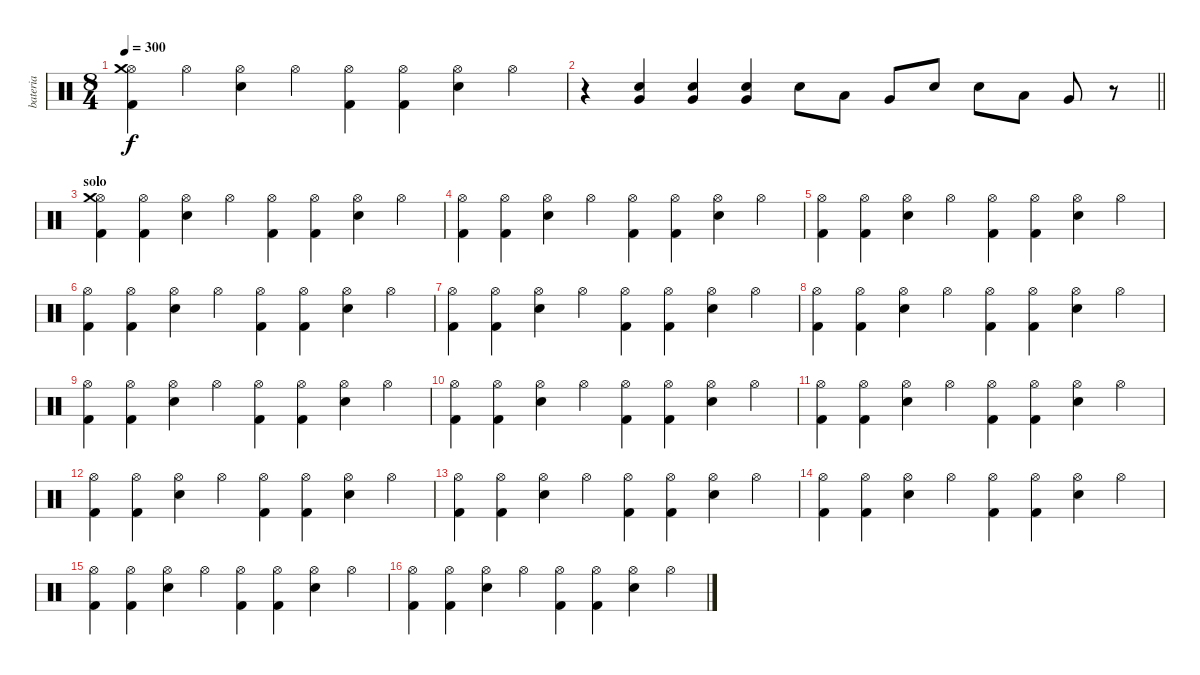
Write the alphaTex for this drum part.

\track ("bateria" "bateria") {instrument percussion}
\staff {score}
\articulation defaults
\ts (8 4)
\tempo 300
\clef neutral
\ks c
("Hi-Hat (open)" "Kick (hit) 2" "Crash medium (hit)").4{dy f} "Hi-Hat (open)".4 ("Hi-Hat (open)" "Electric Snare (hit)").4 "Hi-Hat (open)".4 ("Hi-Hat (open)" "Kick (hit) 2").4 ("Hi-Hat (open)" "Kick (hit) 2").4 ("Hi-Hat (open)" "Electric Snare (hit)").4 "Hi-Hat (open)".4 |
\barLineRight lightlight
r.4 ("Electric Snare (hit)" "Very Low Tom (hit)").4 ("Electric Snare (hit)" "Very Low Tom (hit)").4 ("Electric Snare (hit)" "Very Low Tom (hit)").4 "Electric Snare (hit)".8 "Low Tom (hit)".8 "Very Low Tom (hit)".8 "Electric Snare (hit)".8 "Electric Snare (hit)".8 "Low Tom (hit)".8 "Very Low Tom (hit)".8 r.8 |
\section ("" "solo")
("Hi-Hat (open)" "Kick (hit) 2" "Crash medium (hit)").4 ("Hi-Hat (open)" "Kick (hit) 2").4 ("Hi-Hat (open)" "Electric Snare (hit)").4 "Hi-Hat (open)".4 ("Hi-Hat (open)" "Kick (hit) 2").4 ("Hi-Hat (open)" "Kick (hit) 2").4 ("Hi-Hat (open)" "Electric Snare (hit)").4 "Hi-Hat (open)".4 |
("Hi-Hat (open)" "Kick (hit) 2").4 ("Hi-Hat (open)" "Kick (hit) 2").4 ("Hi-Hat (open)" "Electric Snare (hit)").4 "Hi-Hat (open)".4 ("Hi-Hat (open)" "Kick (hit) 2").4 ("Hi-Hat (open)" "Kick (hit) 2").4 ("Hi-Hat (open)" "Electric Snare (hit)").4 "Hi-Hat (open)".4 |
("Hi-Hat (open)" "Kick (hit) 2").4 ("Hi-Hat (open)" "Kick (hit) 2").4 ("Hi-Hat (open)" "Electric Snare (hit)").4 "Hi-Hat (open)".4 ("Hi-Hat (open)" "Kick (hit) 2").4 ("Hi-Hat (open)" "Kick (hit) 2").4 ("Hi-Hat (open)" "Electric Snare (hit)").4 "Hi-Hat (open)".4 |
("Hi-Hat (open)" "Kick (hit) 2").4 ("Hi-Hat (open)" "Kick (hit) 2").4 ("Hi-Hat (open)" "Electric Snare (hit)").4 "Hi-Hat (open)".4 ("Hi-Hat (open)" "Kick (hit) 2").4 ("Hi-Hat (open)" "Kick (hit) 2").4 ("Hi-Hat (open)" "Electric Snare (hit)").4 "Hi-Hat (open)".4 |
("Hi-Hat (open)" "Kick (hit) 2").4 ("Hi-Hat (open)" "Kick (hit) 2").4 ("Hi-Hat (open)" "Electric Snare (hit)").4 "Hi-Hat (open)".4 ("Hi-Hat (open)" "Kick (hit) 2").4 ("Hi-Hat (open)" "Kick (hit) 2").4 ("Hi-Hat (open)" "Electric Snare (hit)").4 "Hi-Hat (open)".4 |
("Hi-Hat (open)" "Kick (hit) 2").4 ("Hi-Hat (open)" "Kick (hit) 2").4 ("Hi-Hat (open)" "Electric Snare (hit)").4 "Hi-Hat (open)".4 ("Hi-Hat (open)" "Kick (hit) 2").4 ("Hi-Hat (open)" "Kick (hit) 2").4 ("Hi-Hat (open)" "Electric Snare (hit)").4 "Hi-Hat (open)".4 |
("Hi-Hat (open)" "Kick (hit) 2").4 ("Hi-Hat (open)" "Kick (hit) 2").4 ("Hi-Hat (open)" "Electric Snare (hit)").4 "Hi-Hat (open)".4 ("Hi-Hat (open)" "Kick (hit) 2").4 ("Hi-Hat (open)" "Kick (hit) 2").4 ("Hi-Hat (open)" "Electric Snare (hit)").4 "Hi-Hat (open)".4 |
("Hi-Hat (open)" "Kick (hit) 2").4 ("Hi-Hat (open)" "Kick (hit) 2").4 ("Hi-Hat (open)" "Electric Snare (hit)").4 "Hi-Hat (open)".4 ("Hi-Hat (open)" "Kick (hit) 2").4 ("Hi-Hat (open)" "Kick (hit) 2").4 ("Hi-Hat (open)" "Electric Snare (hit)").4 "Hi-Hat (open)".4 |
("Hi-Hat (open)" "Kick (hit) 2").4 ("Hi-Hat (open)" "Kick (hit) 2").4 ("Hi-Hat (open)" "Electric Snare (hit)").4 "Hi-Hat (open)".4 ("Hi-Hat (open)" "Kick (hit) 2").4 ("Hi-Hat (open)" "Kick (hit) 2").4 ("Hi-Hat (open)" "Electric Snare (hit)").4 "Hi-Hat (open)".4 |
("Hi-Hat (open)" "Kick (hit) 2").4 ("Hi-Hat (open)" "Kick (hit) 2").4 ("Hi-Hat (open)" "Electric Snare (hit)").4 "Hi-Hat (open)".4 ("Hi-Hat (open)" "Kick (hit) 2").4 ("Hi-Hat (open)" "Kick (hit) 2").4 ("Hi-Hat (open)" "Electric Snare (hit)").4 "Hi-Hat (open)".4 |
("Hi-Hat (open)" "Kick (hit) 2").4 ("Hi-Hat (open)" "Kick (hit) 2").4 ("Hi-Hat (open)" "Electric Snare (hit)").4 "Hi-Hat (open)".4 ("Hi-Hat (open)" "Kick (hit) 2").4 ("Hi-Hat (open)" "Kick (hit) 2").4 ("Hi-Hat (open)" "Electric Snare (hit)").4 "Hi-Hat (open)".4 |
("Hi-Hat (open)" "Kick (hit) 2").4 ("Hi-Hat (open)" "Kick (hit) 2").4 ("Hi-Hat (open)" "Electric Snare (hit)").4 "Hi-Hat (open)".4 ("Hi-Hat (open)" "Kick (hit) 2").4 ("Hi-Hat (open)" "Kick (hit) 2").4 ("Hi-Hat (open)" "Electric Snare (hit)").4 "Hi-Hat (open)".4 |
("Hi-Hat (open)" "Kick (hit) 2").4 ("Hi-Hat (open)" "Kick (hit) 2").4 ("Hi-Hat (open)" "Electric Snare (hit)").4 "Hi-Hat (open)".4 ("Hi-Hat (open)" "Kick (hit) 2").4 ("Hi-Hat (open)" "Kick (hit) 2").4 ("Hi-Hat (open)" "Electric Snare (hit)").4 "Hi-Hat (open)".4 |
("Hi-Hat (open)" "Kick (hit) 2").4 ("Hi-Hat (open)" "Kick (hit) 2").4 ("Hi-Hat (open)" "Electric Snare (hit)").4 "Hi-Hat (open)".4 ("Hi-Hat (open)" "Kick (hit) 2").4 ("Hi-Hat (open)" "Kick (hit) 2").4 ("Hi-Hat (open)" "Electric Snare (hit)").4 "Hi-Hat (open)".4
